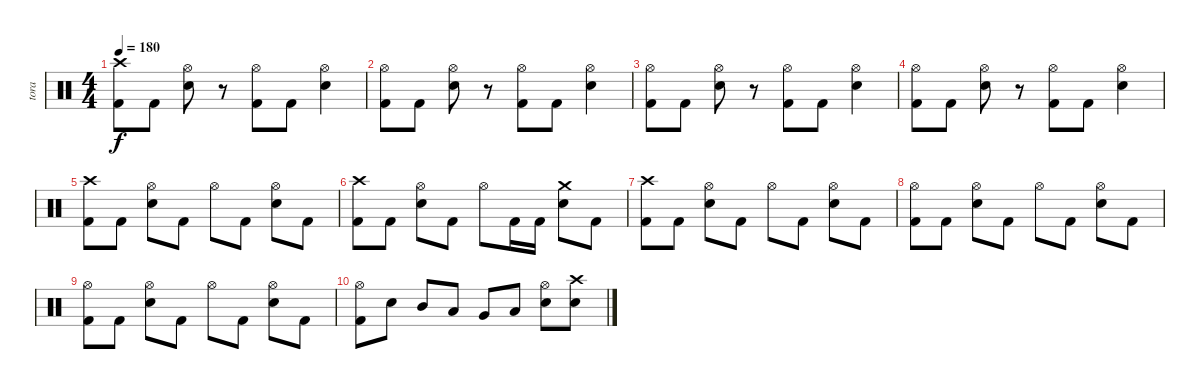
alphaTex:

\track ("tora" "tora") {instrument percussion}
\staff {score}
\articulation defaults
\ts (4 4)
\tempo 180
\clef neutral
\ks c
("Crash high (hit)" "Kick (hit) 2").8{dy f} "Kick (hit) 2".8 ("Hi-Hat (open)" "Snare (hit) 2").8 r.8 ("Hi-Hat (open)" "Kick (hit) 2").8 "Kick (hit) 2".8 ("Hi-Hat (open)" "Snare (hit) 2").4 |
("Hi-Hat (open)" "Kick (hit) 2").8 "Kick (hit) 2".8 ("Hi-Hat (open)" "Snare (hit) 2").8 r.8 ("Hi-Hat (open)" "Kick (hit) 2").8 "Kick (hit) 2".8 ("Hi-Hat (open)" "Snare (hit) 2").4 |
("Hi-Hat (open)" "Kick (hit) 2").8 "Kick (hit) 2".8 ("Hi-Hat (open)" "Snare (hit) 2").8 r.8 ("Hi-Hat (open)" "Kick (hit) 2").8 "Kick (hit) 2".8 ("Hi-Hat (open)" "Snare (hit) 2").4 |
("Hi-Hat (open)" "Kick (hit) 2").8 "Kick (hit) 2".8 ("Hi-Hat (open)" "Snare (hit) 2").8 r.8 ("Hi-Hat (open)" "Kick (hit) 2").8 "Kick (hit) 2".8 ("Hi-Hat (open)" "Snare (hit) 2").4 |
("Crash high (hit)" "Kick (hit) 2").8 "Kick (hit) 2".8 ("Hi-Hat (open)" "Snare (hit) 2").8 "Kick (hit) 2".8 "Hi-Hat (open)".8 "Kick (hit) 2".8 ("Hi-Hat (open)" "Snare (hit) 2").8 "Kick (hit) 2".8 |
("Crash high (hit)" "Kick (hit) 2").8 "Kick (hit) 2".8 ("Hi-Hat (open)" "Snare (hit) 2").8 "Kick (hit) 2".8 "Hi-Hat (open)".8 "Kick (hit) 2".16 "Kick (hit) 2".16 ("Crash medium (hit)" "Snare (hit) 2").8 "Kick (hit) 2".8 |
("Crash high (hit)" "Kick (hit) 2").8 "Kick (hit) 2".8 ("Hi-Hat (open)" "Snare (hit) 2").8 "Kick (hit) 2".8 "Hi-Hat (open)".8 "Kick (hit) 2".8 ("Hi-Hat (open)" "Snare (hit) 2").8 "Kick (hit) 2".8 |
("Hi-Hat (open)" "Kick (hit) 2").8 "Kick (hit) 2".8 ("Hi-Hat (open)" "Snare (hit) 2").8 "Kick (hit) 2".8 "Hi-Hat (open)".8 "Kick (hit) 2".8 ("Hi-Hat (open)" "Snare (hit) 2").8 "Kick (hit) 2".8 |
("Hi-Hat (open)" "Kick (hit) 2").8 "Kick (hit) 2".8 ("Hi-Hat (open)" "Snare (hit) 2").8 "Kick (hit) 2".8 "Hi-Hat (open)".8 "Kick (hit) 2".8 ("Hi-Hat (open)" "Snare (hit) 2").8 "Kick (hit) 2".8 |
("Hi-Hat (open)" "Kick (hit) 2").8 "Snare (hit) 2".8 "Mid Tom (hit)".8 "Low Tom (hit)".8 "Very Low Tom (hit)".8 "Low Floor Tom (hit)".8 ("Hi-Hat (open)" "Snare (hit) 2").8 ("Crash high (hit)" "Snare (hit) 2").8
